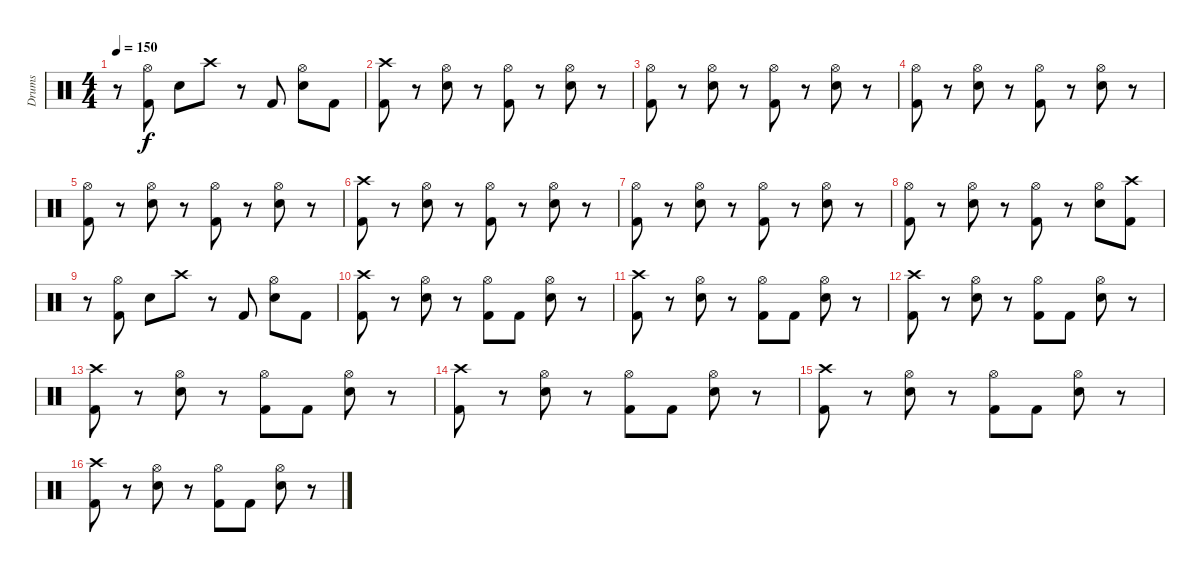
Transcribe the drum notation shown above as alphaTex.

\track ("Drums" "Drums") {instrument percussion}
\staff {score}
\articulation defaults
\ts (4 4)
\tempo 150
\clef neutral
\ks c
r.8{dy f} ("Hi-Hat (open)" "Kick (hit) 2").8 "Snare (hit) 2".8 "Crash high (hit)".8 r.8 "Kick (hit) 2".8 ("Hi-Hat (open)" "Snare (hit) 2").8 "Kick (hit) 2".8 |
("Crash high (hit)" "Kick (hit) 2").8 r.8 ("Hi-Hat (open)" "Snare (hit) 2").8 r.8 ("Hi-Hat (open)" "Kick (hit) 2").8 r.8 ("Hi-Hat (open)" "Snare (hit) 2").8 r.8 |
("Hi-Hat (open)" "Kick (hit) 2").8 r.8 ("Hi-Hat (open)" "Snare (hit) 2").8 r.8 ("Hi-Hat (open)" "Kick (hit) 2").8 r.8 ("Hi-Hat (open)" "Snare (hit) 2").8 r.8 |
("Hi-Hat (open)" "Kick (hit) 2").8 r.8 ("Hi-Hat (open)" "Snare (hit) 2").8 r.8 ("Hi-Hat (open)" "Kick (hit) 2").8 r.8 ("Hi-Hat (open)" "Snare (hit) 2").8 r.8 |
("Hi-Hat (open)" "Kick (hit) 2").8 r.8 ("Hi-Hat (open)" "Snare (hit) 2").8 r.8 ("Hi-Hat (open)" "Kick (hit) 2").8 r.8 ("Hi-Hat (open)" "Snare (hit) 2").8 r.8 |
("Crash high (hit)" "Kick (hit) 2").8 r.8 ("Hi-Hat (open)" "Snare (hit) 2").8 r.8 ("Hi-Hat (open)" "Kick (hit) 2").8 r.8 ("Hi-Hat (open)" "Snare (hit) 2").8 r.8 |
("Hi-Hat (open)" "Kick (hit) 2").8 r.8 ("Hi-Hat (open)" "Snare (hit) 2").8 r.8 ("Hi-Hat (open)" "Kick (hit) 2").8 r.8 ("Hi-Hat (open)" "Snare (hit) 2").8 r.8 |
("Hi-Hat (open)" "Kick (hit) 2").8 r.8 ("Hi-Hat (open)" "Snare (hit) 2").8 r.8 ("Hi-Hat (open)" "Kick (hit) 2").8 r.8 ("Hi-Hat (open)" "Snare (hit) 2").8 ("Crash high (hit)" "Kick (hit) 2").8 |
r.8 ("Hi-Hat (open)" "Kick (hit) 2").8 "Snare (hit) 2".8 "Crash high (hit)".8 r.8 "Kick (hit) 2".8 ("Hi-Hat (open)" "Snare (hit) 2").8 "Kick (hit) 2".8 |
("Crash high (hit)" "Kick (hit) 2").8 r.8 ("Hi-Hat (open)" "Snare (hit) 2").8 r.8 ("Hi-Hat (open)" "Kick (hit) 2").8 "Kick (hit) 2".8 ("Hi-Hat (open)" "Snare (hit) 2").8 r.8 |
("Crash high (hit)" "Kick (hit) 2").8 r.8 ("Hi-Hat (open)" "Snare (hit) 2").8 r.8 ("Hi-Hat (open)" "Kick (hit) 2").8 "Kick (hit) 2".8 ("Hi-Hat (open)" "Snare (hit) 2").8 r.8 |
("Crash high (hit)" "Kick (hit) 2").8 r.8 ("Hi-Hat (open)" "Snare (hit) 2").8 r.8 ("Hi-Hat (open)" "Kick (hit) 2").8 "Kick (hit) 2".8 ("Hi-Hat (open)" "Snare (hit) 2").8 r.8 |
("Crash high (hit)" "Kick (hit) 2").8 r.8 ("Hi-Hat (open)" "Snare (hit) 2").8 r.8 ("Hi-Hat (open)" "Kick (hit) 2").8 "Kick (hit) 2".8 ("Hi-Hat (open)" "Snare (hit) 2").8 r.8 |
("Crash high (hit)" "Kick (hit) 2").8 r.8 ("Hi-Hat (open)" "Snare (hit) 2").8 r.8 ("Hi-Hat (open)" "Kick (hit) 2").8 "Kick (hit) 2".8 ("Hi-Hat (open)" "Snare (hit) 2").8 r.8 |
("Crash high (hit)" "Kick (hit) 2").8 r.8 ("Hi-Hat (open)" "Snare (hit) 2").8 r.8 ("Hi-Hat (open)" "Kick (hit) 2").8 "Kick (hit) 2".8 ("Hi-Hat (open)" "Snare (hit) 2").8 r.8 |
("Crash high (hit)" "Kick (hit) 2").8 r.8 ("Hi-Hat (open)" "Snare (hit) 2").8 r.8 ("Hi-Hat (open)" "Kick (hit) 2").8 "Kick (hit) 2".8 ("Hi-Hat (open)" "Snare (hit) 2").8 r.8
